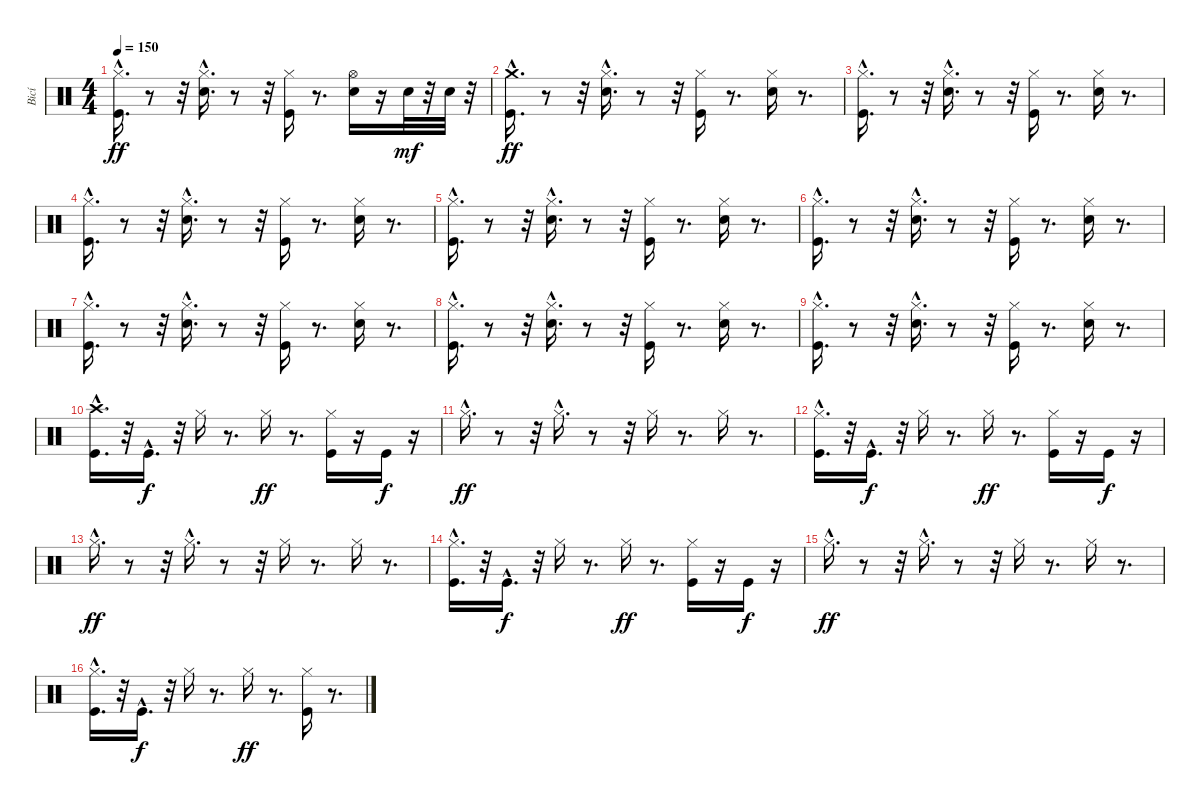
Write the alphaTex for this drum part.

\track ("Bicí" "Bicí") {instrument percussion}
\staff {score}
\articulation defaults
\ts (4 4)
\tempo 150
\clef neutral
\ks c
("Hi-Hat (closed)"{hac} "Kick (hit)").16{d dy ff} r.8 r.32 ("Hi-Hat (closed)"{hac} "Snare (hit) 2").16{d} r.8 r.32 ("Kick (hit)" "Hi-Hat (closed)").16 r.8{d} ("Snare (hit) 2" "Hi-Hat (open)").16 r.16 "Snare (hit) 2".32{dy mf} r.32 "Snare (hit) 2".32 r.32 |
("Crash medium (hit)"{hac} "Kick (hit)").16{d dy ff} r.8 r.32 ("Hi-Hat (closed)"{hac} "Snare (hit) 2").16{d} r.8 r.32 ("Kick (hit)" "Hi-Hat (closed)").16 r.8{d} ("Snare (hit) 2" "Hi-Hat (closed)").16 r.8{d} |
("Hi-Hat (closed)"{hac} "Kick (hit)").16{d} r.8 r.32 ("Hi-Hat (closed)"{hac} "Snare (hit) 2").16{d} r.8 r.32 ("Kick (hit)" "Hi-Hat (closed)").16 r.8{d} ("Snare (hit) 2" "Hi-Hat (closed)").16 r.8{d} |
("Hi-Hat (closed)"{hac} "Kick (hit)").16{d} r.8 r.32 ("Hi-Hat (closed)"{hac} "Snare (hit) 2").16{d} r.8 r.32 ("Kick (hit)" "Hi-Hat (closed)").16 r.8{d} ("Snare (hit) 2" "Hi-Hat (closed)").16 r.8{d} |
("Hi-Hat (closed)"{hac} "Kick (hit)").16{d} r.8 r.32 ("Hi-Hat (closed)"{hac} "Snare (hit) 2").16{d} r.8 r.32 ("Kick (hit)" "Hi-Hat (closed)").16 r.8{d} ("Snare (hit) 2" "Hi-Hat (closed)").16 r.8{d} |
("Hi-Hat (closed)"{hac} "Kick (hit)").16{d} r.8 r.32 ("Hi-Hat (closed)"{hac} "Snare (hit) 2").16{d} r.8 r.32 ("Kick (hit)" "Hi-Hat (closed)").16 r.8{d} ("Snare (hit) 2" "Hi-Hat (closed)").16 r.8{d} |
("Hi-Hat (closed)"{hac} "Kick (hit)").16{d} r.8 r.32 ("Hi-Hat (closed)"{hac} "Snare (hit) 2").16{d} r.8 r.32 ("Kick (hit)" "Hi-Hat (closed)").16 r.8{d} ("Snare (hit) 2" "Hi-Hat (closed)").16 r.8{d} |
("Hi-Hat (closed)"{hac} "Kick (hit)").16{d} r.8 r.32 ("Hi-Hat (closed)"{hac} "Snare (hit) 2").16{d} r.8 r.32 ("Kick (hit)" "Hi-Hat (closed)").16 r.8{d} ("Snare (hit) 2" "Hi-Hat (closed)").16 r.8{d} |
("Hi-Hat (closed)"{hac} "Kick (hit)").16{d} r.8 r.32 ("Hi-Hat (closed)"{hac} "Snare (hit) 2").16{d} r.8 r.32 ("Kick (hit)" "Hi-Hat (closed)").16 r.8{d} ("Snare (hit) 2" "Hi-Hat (closed)").16 r.8{d} |
("Crash high (hit)"{hac} "Kick (hit)").16{d} r.32 "Kick (hit)"{hac}.16{d dy f} r.32 "Hi-Hat (closed)".16 r.8{d} "Hi-Hat (closed)".16{dy ff} r.8{d} ("Hi-Hat (closed)" "Kick (hit)").16 r.16 "Kick (hit)".16{dy f} r.16 |
"Hi-Hat (closed)"{hac}.16{d dy ff} r.8 r.32 "Hi-Hat (closed)"{hac}.16{d} r.8 r.32 "Hi-Hat (closed)".16 r.8{d} "Hi-Hat (closed)".16 r.8{d} |
("Hi-Hat (closed)"{hac} "Kick (hit)").16{d} r.32 "Kick (hit)"{hac}.16{d dy f} r.32 "Hi-Hat (closed)".16 r.8{d} "Hi-Hat (closed)".16{dy ff} r.8{d} ("Hi-Hat (closed)" "Kick (hit)").16 r.16 "Kick (hit)".16{dy f} r.16 |
"Hi-Hat (closed)"{hac}.16{d dy ff} r.8 r.32 "Hi-Hat (closed)"{hac}.16{d} r.8 r.32 "Hi-Hat (closed)".16 r.8{d} "Hi-Hat (closed)".16 r.8{d} |
("Hi-Hat (closed)"{hac} "Kick (hit)").16{d} r.32 "Kick (hit)"{hac}.16{d dy f} r.32 "Hi-Hat (closed)".16 r.8{d} "Hi-Hat (closed)".16{dy ff} r.8{d} ("Hi-Hat (closed)" "Kick (hit)").16 r.16 "Kick (hit)".16{dy f} r.16 |
"Hi-Hat (closed)"{hac}.16{d dy ff} r.8 r.32 "Hi-Hat (closed)"{hac}.16{d} r.8 r.32 "Hi-Hat (closed)".16 r.8{d} "Hi-Hat (closed)".16 r.8{d} |
("Hi-Hat (closed)"{hac} "Kick (hit)").16{d} r.32 "Kick (hit)"{hac}.16{d dy f} r.32 "Hi-Hat (closed)".16 r.8{d} "Hi-Hat (closed)".16{dy ff} r.8{d} ("Hi-Hat (closed)" "Kick (hit)").16 r.8{d}
